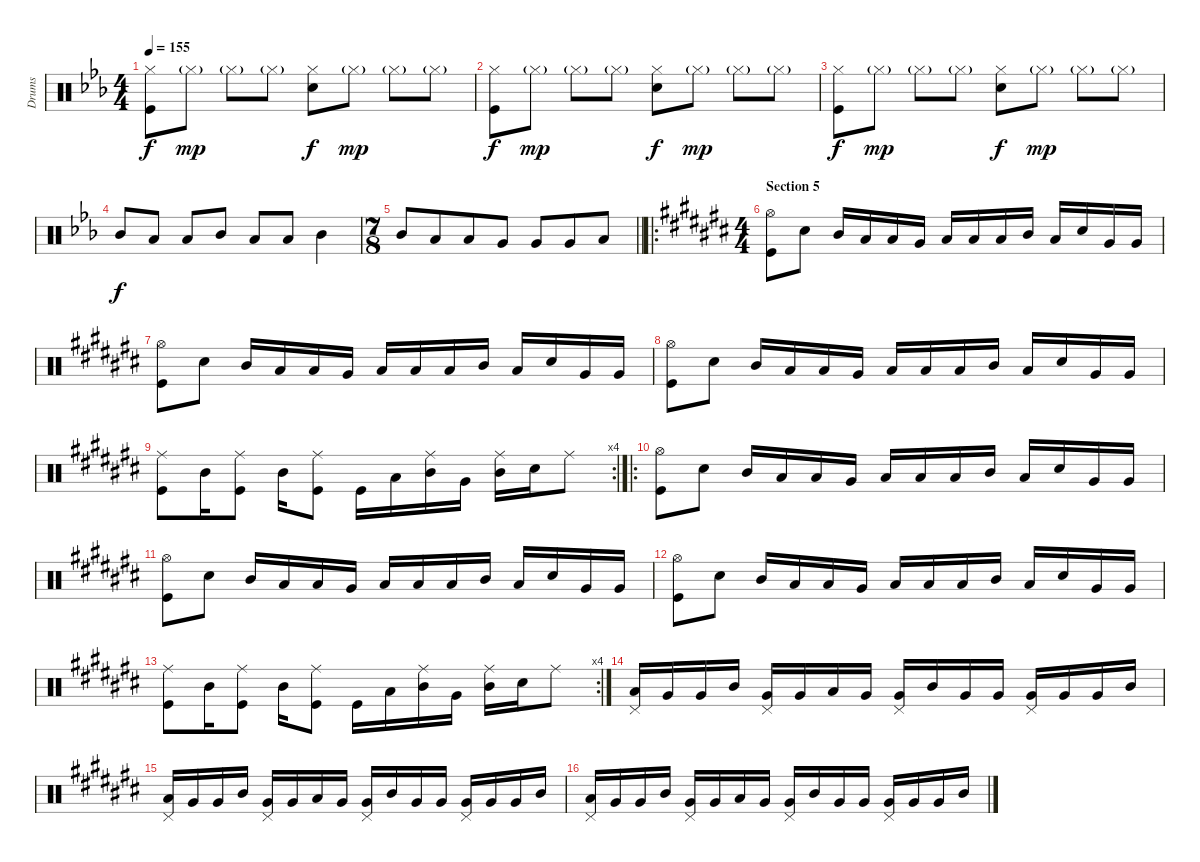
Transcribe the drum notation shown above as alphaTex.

\track ("Drums" "Drums") {instrument percussion}
\staff {score}
\articulation defaults
\ts (4 4)
\tempo 155
\clef neutral
\ks eb
("Hi-Hat (closed)" "Kick (hit)").8{dy f} "Hi-Hat (closed)"{g}.8{dy mp} "Hi-Hat (closed)"{g}.8 "Hi-Hat (closed)"{g}.8 ("Hi-Hat (closed)" "Snare (hit) 2").8{dy f} "Hi-Hat (closed)"{g}.8{dy mp} "Hi-Hat (closed)"{g}.8 "Hi-Hat (closed)"{g}.8 |
("Hi-Hat (closed)" "Kick (hit)").8{dy f} "Hi-Hat (closed)"{g}.8{dy mp} "Hi-Hat (closed)"{g}.8 "Hi-Hat (closed)"{g}.8 ("Hi-Hat (closed)" "Snare (hit) 2").8{dy f} "Hi-Hat (closed)"{g}.8{dy mp} "Hi-Hat (closed)"{g}.8 "Hi-Hat (closed)"{g}.8 |
("Hi-Hat (closed)" "Kick (hit)").8{dy f} "Hi-Hat (closed)"{g}.8{dy mp} "Hi-Hat (closed)"{g}.8 "Hi-Hat (closed)"{g}.8 ("Hi-Hat (closed)" "Snare (hit) 2").8{dy f} "Hi-Hat (closed)"{g}.8{dy mp} "Hi-Hat (closed)"{g}.8 "Hi-Hat (closed)"{g}.8 |
"Mid Tom (hit)".8{dy f} "Low Tom (hit)".8 "Low Tom (hit)".8 "Mid Tom (hit)".8 "Low Tom (hit)".8 "Low Tom (hit)".8 "Mid Tom (hit)".4 |
\ts (7 8)
\barLineRight lightlight "Mid Tom (hit)".8 "Low Tom (hit)".8 "Low Tom (hit)".8 "Very Low Tom (hit)".8 "Very Low Tom (hit)".8 "Very Low Tom (hit)".8 "Low Floor Tom (hit)".8
|
\ro
\ts (4 4)
\section ("" "Section 5")
\ks c#
("Hi-Hat (open)" "Kick (hit)").8 "Snare (hit) 2".8 "Mid Tom (hit)".16 "Low Tom (hit)".16 "Low Tom (hit)".16 "Very Low Tom (hit)".16 "Low Tom (hit)".16 "Low Tom (hit)".16 "Low Tom (hit)".16 "Mid Tom (hit)".16 "Low Tom (hit)".16 "Snare (hit) 2".16 "Very Low Tom (hit)".16 "Very Low Tom (hit)".16 |
("Hi-Hat (open)" "Kick (hit)").8 "Snare (hit) 2".8 "Mid Tom (hit)".16 "Low Tom (hit)".16 "Low Tom (hit)".16 "Very Low Tom (hit)".16 "Low Tom (hit)".16 "Low Tom (hit)".16 "Low Tom (hit)".16 "Mid Tom (hit)".16 "Low Tom (hit)".16 "Snare (hit) 2".16 "Very Low Tom (hit)".16 "Very Low Tom (hit)".16 |
("Hi-Hat (open)" "Kick (hit)").8 "Snare (hit) 2".8 "Mid Tom (hit)".16 "Low Tom (hit)".16 "Low Tom (hit)".16 "Very Low Tom (hit)".16 "Low Tom (hit)".16 "Low Tom (hit)".16 "Low Tom (hit)".16 "Mid Tom (hit)".16 "Low Tom (hit)".16 "Snare (hit) 2".16 "Very Low Tom (hit)".16 "Very Low Tom (hit)".16 |
\rc 4
("Ride (middle)" "Kick (hit)").8 "Mid Tom (hit)".16 ("Ride (middle)" "Kick (hit)").8 "Mid Tom (hit)".16 ("Ride (middle)" "Kick (hit)").8 "Kick (hit)".16 "Low Tom (hit)".16 ("Ride (middle)" "Mid Tom (hit)").16 "Very Low Tom (hit)".16 ("Ride (middle)" "Mid Tom (hit)").16 "Snare (hit) 2".16 "Ride (middle)".8 |
\ro
("Hi-Hat (open)" "Kick (hit)").8 "Snare (hit) 2".8 "Mid Tom (hit)".16 "Low Tom (hit)".16 "Low Tom (hit)".16 "Very Low Tom (hit)".16 "Low Tom (hit)".16 "Low Tom (hit)".16 "Low Tom (hit)".16 "Mid Tom (hit)".16 "Low Tom (hit)".16 "Snare (hit) 2".16 "Very Low Tom (hit)".16 "Very Low Tom (hit)".16 |
("Hi-Hat (open)" "Kick (hit)").8 "Snare (hit) 2".8 "Mid Tom (hit)".16 "Low Tom (hit)".16 "Low Tom (hit)".16 "Very Low Tom (hit)".16 "Low Tom (hit)".16 "Low Tom (hit)".16 "Low Tom (hit)".16 "Mid Tom (hit)".16 "Low Tom (hit)".16 "Snare (hit) 2".16 "Very Low Tom (hit)".16 "Very Low Tom (hit)".16 |
("Hi-Hat (open)" "Kick (hit)").8 "Snare (hit) 2".8 "Mid Tom (hit)".16 "Low Tom (hit)".16 "Low Tom (hit)".16 "Very Low Tom (hit)".16 "Low Tom (hit)".16 "Low Tom (hit)".16 "Low Tom (hit)".16 "Mid Tom (hit)".16 "Low Tom (hit)".16 "Snare (hit) 2".16 "Very Low Tom (hit)".16 "Very Low Tom (hit)".16 |
\rc 4
("Ride (middle)" "Kick (hit)").8 "Mid Tom (hit)".16 ("Ride (middle)" "Kick (hit)").8 "Mid Tom (hit)".16 ("Ride (middle)" "Kick (hit)").8 "Kick (hit)".16 "Low Tom (hit)".16 ("Ride (middle)" "Mid Tom (hit)").16 "Very Low Tom (hit)".16 ("Ride (middle)" "Mid Tom (hit)").16 "Snare (hit) 2".16 "Ride (middle)".8 |
("Pedal Hi-Hat (hit)" "Low Tom (hit)").16 "Very Low Tom (hit)".16 "Very Low Tom (hit)".16 "Mid Tom (hit)".16 ("Pedal Hi-Hat (hit)" "Very Low Tom (hit)").16 "Very Low Tom (hit)".16 "Low Tom (hit)".16 "Very Low Tom (hit)".16 ("Pedal Hi-Hat (hit)" "Very Low Tom (hit)").16 "Mid Tom (hit)".16 "Very Low Tom (hit)".16 "Very Low Tom (hit)".16 ("Pedal Hi-Hat (hit)" "Very Low Tom (hit)").16 "Very Low Tom (hit)".16 "Very Low Tom (hit)".16 "Mid Tom (hit)".16 |
("Pedal Hi-Hat (hit)" "Low Tom (hit)").16 "Very Low Tom (hit)".16 "Very Low Tom (hit)".16 "Mid Tom (hit)".16 ("Pedal Hi-Hat (hit)" "Very Low Tom (hit)").16 "Very Low Tom (hit)".16 "Low Tom (hit)".16 "Very Low Tom (hit)".16 ("Pedal Hi-Hat (hit)" "Very Low Tom (hit)").16 "Mid Tom (hit)".16 "Very Low Tom (hit)".16 "Very Low Tom (hit)".16 ("Pedal Hi-Hat (hit)" "Very Low Tom (hit)").16 "Very Low Tom (hit)".16 "Very Low Tom (hit)".16 "Mid Tom (hit)".16 |
("Pedal Hi-Hat (hit)" "Low Tom (hit)").16 "Very Low Tom (hit)".16 "Very Low Tom (hit)".16 "Mid Tom (hit)".16 ("Pedal Hi-Hat (hit)" "Very Low Tom (hit)").16 "Very Low Tom (hit)".16 "Low Tom (hit)".16 "Very Low Tom (hit)".16 ("Pedal Hi-Hat (hit)" "Very Low Tom (hit)").16 "Mid Tom (hit)".16 "Very Low Tom (hit)".16 "Very Low Tom (hit)".16 ("Pedal Hi-Hat (hit)" "Very Low Tom (hit)").16 "Very Low Tom (hit)".16 "Very Low Tom (hit)".16 "Mid Tom (hit)".16
